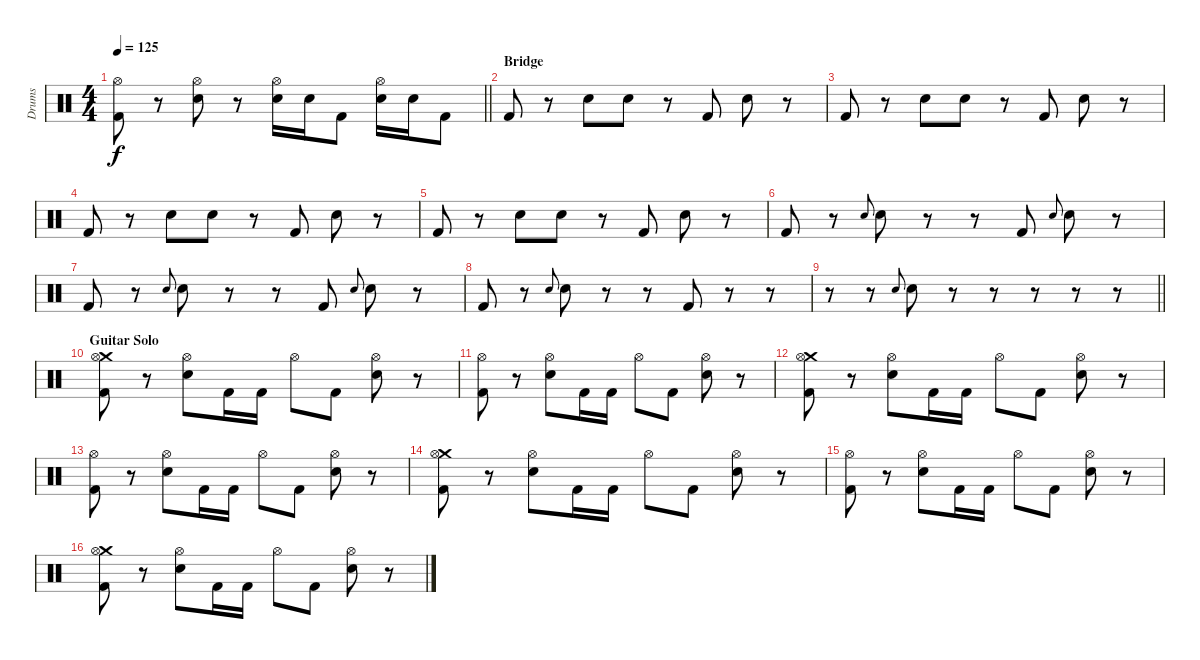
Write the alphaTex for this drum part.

\track ("Drums" "Drums") {instrument percussion}
\staff {score}
\articulation defaults
\ts (4 4)
\tempo 125
\clef neutral
\barLineRight lightlight
\ks c
("Hi-Hat (open)" "Kick (hit) 2").8{dy f} r.8 ("Hi-Hat (open)" "Electric Snare (hit)").8 r.8 ("Hi-Hat (open)" "Electric Snare (hit)").16 "Electric Snare (hit)".16 "Kick (hit) 2".8 ("Hi-Hat (open)" "Electric Snare (hit)").16 "Electric Snare (hit)".16 "Kick (hit) 2".8 |
\section ("" "Bridge")
"Kick (hit) 2".8 r.8 "Hand Clap (hit)".8 "Hand Clap (hit)".8 r.8 "Kick (hit) 2".8 "Hand Clap (hit)".8 r.8 |
"Kick (hit) 2".8 r.8 "Hand Clap (hit)".8 "Hand Clap (hit)".8 r.8 "Kick (hit) 2".8 "Hand Clap (hit)".8 r.8 |
"Kick (hit) 2".8 r.8 "Hand Clap (hit)".8 "Hand Clap (hit)".8 r.8 "Kick (hit) 2".8 "Hand Clap (hit)".8 r.8 |
"Kick (hit) 2".8 r.8 "Hand Clap (hit)".8 "Hand Clap (hit)".8 r.8 "Kick (hit) 2".8 "Electric Snare (hit)".8 r.8 |
"Kick (hit) 2".8 r.8 "Electric Snare (hit)".8{gr onbeat} "Electric Snare (hit)".8 r.8 r.8 "Kick (hit) 2".8 "Electric Snare (hit)".8{gr onbeat} "Electric Snare (hit)".8 r.8 |
"Kick (hit) 2".8 r.8 "Electric Snare (hit)".8{gr onbeat} "Electric Snare (hit)".8 r.8 r.8 "Kick (hit) 2".8 "Electric Snare (hit)".8{gr onbeat} "Electric Snare (hit)".8 r.8 |
"Kick (hit) 2".8 r.8 "Electric Snare (hit)".8{gr onbeat} "Electric Snare (hit)".8 r.8 r.8 "Kick (hit) 2".8 r.8 r.8 |
\barLineRight lightlight
r.8 r.8 "Electric Snare (hit)".8{gr onbeat} "Electric Snare (hit)".8 r.8 r.8 r.8 r.8 r.8 |
\section ("" "Guitar Solo")
("Crash medium (hit)" "Hi-Hat (open)" "Kick (hit) 2").8 r.8 ("Hi-Hat (open)" "Electric Snare (hit)").8 "Kick (hit) 2".16 "Kick (hit) 2".16 "Hi-Hat (open)".8 "Kick (hit) 2".8 ("Hi-Hat (open)" "Electric Snare (hit)").8 r.8 |
("Hi-Hat (open)" "Kick (hit) 2").8 r.8 ("Hi-Hat (open)" "Electric Snare (hit)").8 "Kick (hit) 2".16 "Kick (hit) 2".16 "Hi-Hat (open)".8 "Kick (hit) 2".8 ("Hi-Hat (open)" "Electric Snare (hit)").8 r.8 |
("Crash medium (hit)" "Hi-Hat (open)" "Kick (hit) 2").8 r.8 ("Hi-Hat (open)" "Electric Snare (hit)").8 "Kick (hit) 2".16 "Kick (hit) 2".16 "Hi-Hat (open)".8 "Kick (hit) 2".8 ("Hi-Hat (open)" "Electric Snare (hit)").8 r.8 |
("Hi-Hat (open)" "Kick (hit) 2").8 r.8 ("Hi-Hat (open)" "Electric Snare (hit)").8 "Kick (hit) 2".16 "Kick (hit) 2".16 "Hi-Hat (open)".8 "Kick (hit) 2".8 ("Hi-Hat (open)" "Electric Snare (hit)").8 r.8 |
("Crash medium (hit)" "Hi-Hat (open)" "Kick (hit) 2").8 r.8 ("Hi-Hat (open)" "Electric Snare (hit)").8 "Kick (hit) 2".16 "Kick (hit) 2".16 "Hi-Hat (open)".8 "Kick (hit) 2".8 ("Hi-Hat (open)" "Electric Snare (hit)").8 r.8 |
("Hi-Hat (open)" "Kick (hit) 2").8 r.8 ("Hi-Hat (open)" "Electric Snare (hit)").8 "Kick (hit) 2".16 "Kick (hit) 2".16 "Hi-Hat (open)".8 "Kick (hit) 2".8 ("Hi-Hat (open)" "Electric Snare (hit)").8 r.8 |
("Crash medium (hit)" "Hi-Hat (open)" "Kick (hit) 2").8 r.8 ("Hi-Hat (open)" "Electric Snare (hit)").8 "Kick (hit) 2".16 "Kick (hit) 2".16 "Hi-Hat (open)".8 "Kick (hit) 2".8 ("Hi-Hat (open)" "Electric Snare (hit)").8 r.8
